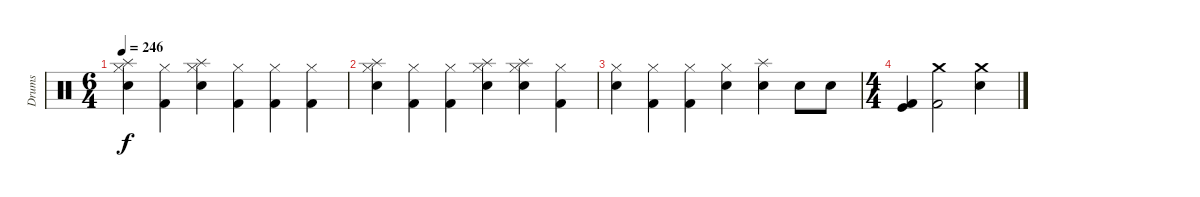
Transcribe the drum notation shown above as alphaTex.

\track ("Drums" "Drums") {instrument percussion}
\staff {score}
\articulation defaults
\ts (6 4)
\tempo 246
\clef neutral
\ks c
("Hi-Hat (closed)" "Splash (hit)" "Snare (hit) 2").4{dy f} ("Hi-Hat (closed)" "Kick (hit) 2").4 ("Splash (hit)" "Hi-Hat (closed)" "Snare (hit) 2").4 ("Hi-Hat (closed)" "Kick (hit) 2").4 ("Hi-Hat (closed)" "Kick (hit) 2").4 ("Hi-Hat (closed)" "Kick (hit) 2").4 |
("Splash (hit)" "Hi-Hat (closed)" "Snare (hit) 2").4 ("Hi-Hat (closed)" "Kick (hit) 2").4 ("Hi-Hat (closed)" "Kick (hit) 2").4 ("Splash (hit)" "Hi-Hat (closed)" "Snare (hit) 2").4 ("Splash (hit)" "Hi-Hat (closed)" "Snare (hit) 2").4 ("Hi-Hat (closed)" "Kick (hit) 2").4 |
("Hi-Hat (closed)" "Snare (hit) 2").4 ("Hi-Hat (closed)" "Kick (hit) 2").4 ("Hi-Hat (closed)" "Kick (hit) 2").4 ("Hi-Hat (closed)" "Snare (hit) 2").4 ("Splash (hit)" "Snare (hit) 2").4 "Snare (hit) 2".8 "Snare (hit) 2".8 |
\ts (4 4)
("Kick (hit)" "Kick (hit) 2").4 ("Crash medium (hit)" "Kick (hit) 2").2 ("Crash medium (hit)" "Snare (hit) 2").4
